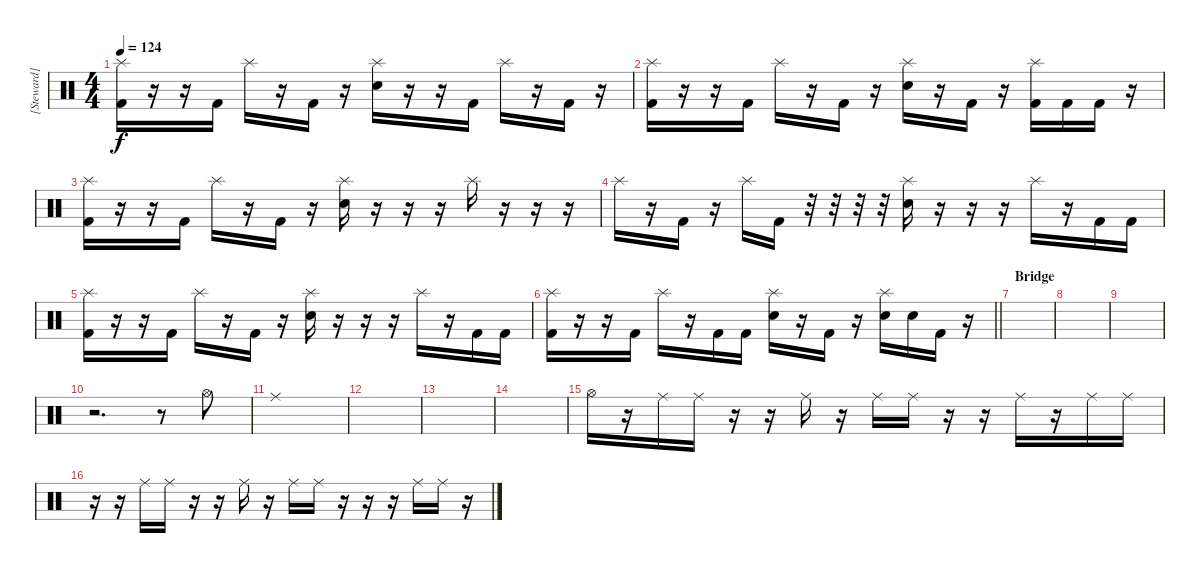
\track ("[Steward]" "[Steward]") {solo instrument percussion}
\staff {score}
\articulation defaults
\ts (4 4)
\tempo 124
\clef neutral
\ks c
("Kick (hit) 2" "Splash (hit)").16{dy f} r.16 r.16 "Kick (hit) 2".16 "Splash (hit)".16 r.16 "Kick (hit) 2".16 r.16 ("Electric Snare (hit)" "Splash (hit)").16 r.16 r.16 "Kick (hit) 2".16 "Splash (hit)".16 r.16 "Kick (hit) 2".16 r.16 |
("Kick (hit) 2" "Splash (hit)").16 r.16 r.16 "Kick (hit) 2".16 "Splash (hit)".16 r.16 "Kick (hit) 2".16 r.16 ("Electric Snare (hit)" "Splash (hit)").16 r.16 "Kick (hit) 2".16 r.16 ("Kick (hit) 2" "Splash (hit)").16 "Kick (hit) 2".16 "Kick (hit) 2".16 r.16 |
("Kick (hit) 2" "Splash (hit)").16 r.16 r.16 "Kick (hit) 2".16 "Splash (hit)".16 r.16 "Kick (hit) 2".16 r.16 ("Electric Snare (hit)" "Splash (hit)").16 r.16 r.16 r.16 "Splash (hit)".16 r.16 r.16 r.16 |
"Splash (hit)".16 r.16 "Kick (hit) 2".16 r.16 "Splash (hit)".16 "Kick (hit) 2".16 r.32 r.32 r.32 r.32 ("Electric Snare (hit)" "Splash (hit)").16 r.16 r.16 r.16 "Splash (hit)".16 r.16 "Kick (hit) 2".16 "Kick (hit) 2".16 |
("Kick (hit) 2" "Splash (hit)").16 r.16 r.16 "Kick (hit) 2".16 "Splash (hit)".16 r.16 "Kick (hit) 2".16 r.16 ("Electric Snare (hit)" "Splash (hit)").16 r.16 r.16 r.16 "Splash (hit)".16 r.16 "Kick (hit) 2".16 "Kick (hit) 2".16 |
\barLineRight lightlight
("Kick (hit) 2" "Splash (hit)").16 r.16 r.16 "Kick (hit) 2".16 "Splash (hit)".16 r.16 "Kick (hit) 2".16 "Kick (hit) 2".16 ("Electric Snare (hit)" "Splash (hit)").16 r.16 "Kick (hit) 2".16 r.16 ("Electric Snare (hit)" "Splash (hit)").16 "Electric Snare (hit)".16 "Kick (hit) 2".16 r.16 |
\section ("" "Bridge")
|
|
|
r.2{d} r.8 "Hi-Hat (open)".8 |
"Ride (middle)".1 |
|
|
|
"Hi-Hat (open)".16 r.16 "Ride (middle)".16 "Ride (middle)".16 r.16 r.16 "Ride (middle)".16 r.16 "Ride (middle)".16 "Ride (middle)".16 r.16 r.16 "Ride (middle)".16 r.16 "Ride (middle)".16 "Ride (middle)".16 |
r.16 r.16 "Ride (middle)".16 "Ride (middle)".16 r.16 r.16 "Ride (middle)".16 r.16 "Ride (middle)".16 "Ride (middle)".16 r.16 r.16 r.16 "Ride (middle)".16 "Ride (middle)".16 r.16
